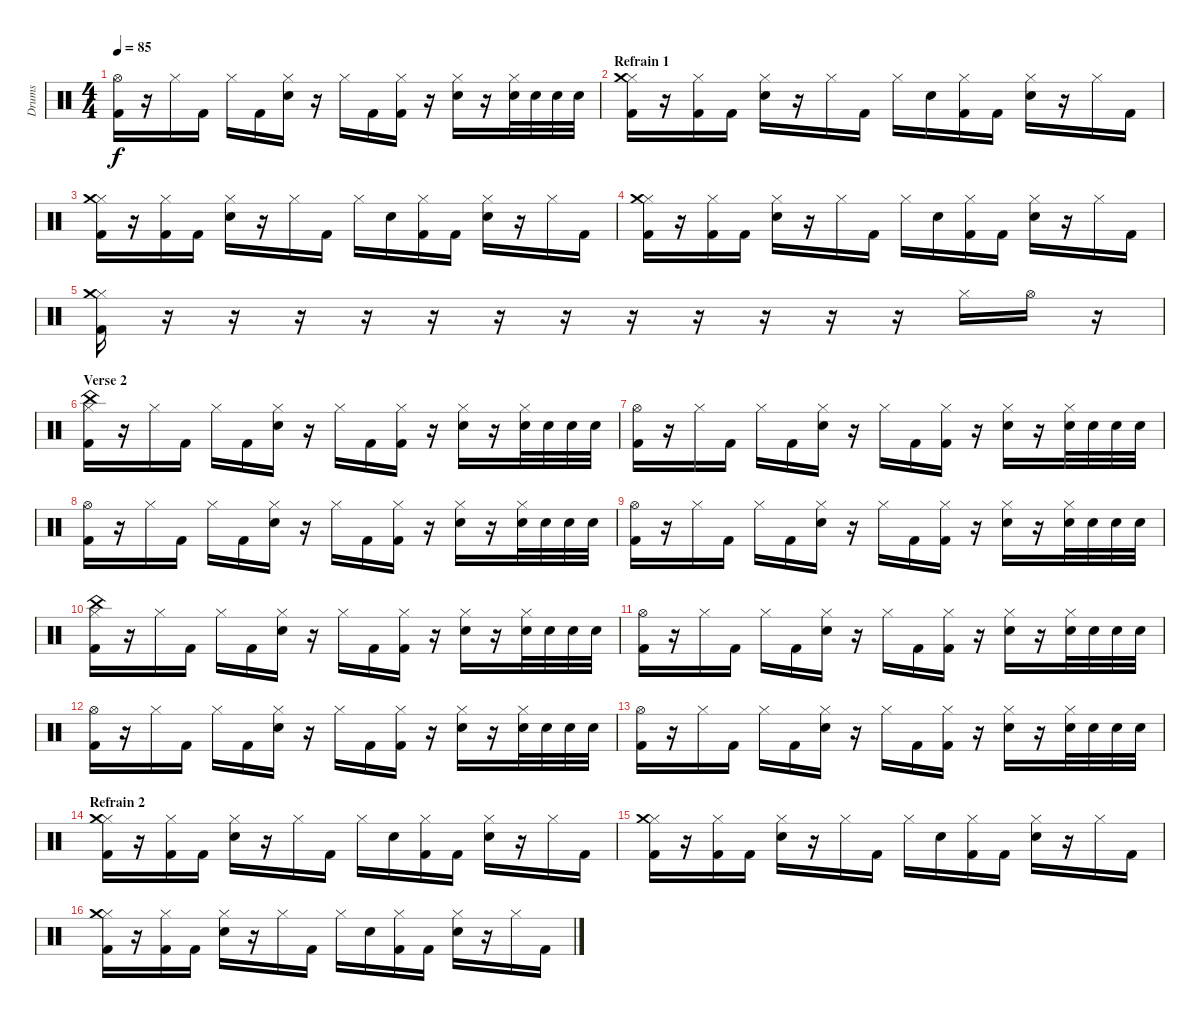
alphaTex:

\track ("Drums" "Drums") {instrument percussion}
\staff {score}
\articulation defaults
\ts (4 4)
\tempo 85
\clef neutral
\ks c
("Hi-Hat (open)" "Kick (hit) 2").16{dy f} r.16 "Hi-Hat (closed)".16 "Kick (hit) 2".16 "Hi-Hat (closed)".16 "Kick (hit) 2".16 ("Hi-Hat (closed)" "Snare (hit) 2").16 r.16 "Hi-Hat (closed)".16 "Kick (hit) 2".16 ("Hi-Hat (closed)" "Kick (hit) 2").16 r.16 ("Hi-Hat (closed)" "Snare (hit) 2").16 r.16 ("Hi-Hat (closed)" "Snare (hit) 2").32 "Snare (hit) 2".32 "Snare (hit) 2".32 "Snare (hit) 2".32 |
\section ("" "Refrain 1")
("Hi-Hat (closed)" "Kick (hit) 2" "Crash medium (hit)").16 r.16 ("Hi-Hat (closed)" "Kick (hit) 2").16 "Kick (hit) 2".16 ("Hi-Hat (closed)" "Snare (hit) 2").16 r.16 "Hi-Hat (closed)".16 "Kick (hit) 2".16 "Hi-Hat (closed)".16 "Snare (hit) 2".16 ("Hi-Hat (closed)" "Kick (hit) 2").16 "Kick (hit) 2".16 ("Hi-Hat (closed)" "Snare (hit) 2").16 r.16 "Hi-Hat (closed)".16 "Kick (hit) 2".16 |
("Hi-Hat (closed)" "Kick (hit) 2" "Crash medium (hit)").16 r.16 ("Hi-Hat (closed)" "Kick (hit) 2").16 "Kick (hit) 2".16 ("Hi-Hat (closed)" "Snare (hit) 2").16 r.16 "Hi-Hat (closed)".16 "Kick (hit) 2".16 "Hi-Hat (closed)".16 "Snare (hit) 2".16 ("Hi-Hat (closed)" "Kick (hit) 2").16 "Kick (hit) 2".16 ("Hi-Hat (closed)" "Snare (hit) 2").16 r.16 "Hi-Hat (closed)".16 "Kick (hit) 2".16 |
("Hi-Hat (closed)" "Kick (hit) 2" "Crash medium (hit)").16 r.16 ("Hi-Hat (closed)" "Kick (hit) 2").16 "Kick (hit) 2".16 ("Hi-Hat (closed)" "Snare (hit) 2").16 r.16 "Hi-Hat (closed)".16 "Kick (hit) 2".16 "Hi-Hat (closed)".16 "Snare (hit) 2".16 ("Hi-Hat (closed)" "Kick (hit) 2").16 "Kick (hit) 2".16 ("Hi-Hat (closed)" "Snare (hit) 2").16 r.16 "Hi-Hat (closed)".16 "Kick (hit) 2".16 |
("Hi-Hat (closed)" "Kick (hit) 2" "Crash medium (hit)").16 r.16 r.16 r.16 r.16 r.16 r.16 r.16 r.16 r.16 r.16 r.16 r.16 "Hi-Hat (closed)".16 "Hi-Hat (open)".16 r.16 |
\section ("" "Verse 2")
("Hi-Hat (closed)" "Kick (hit) 2" "China (hit)").16 r.16 "Hi-Hat (closed)".16 "Kick (hit) 2".16 "Hi-Hat (closed)".16 "Kick (hit) 2".16 ("Hi-Hat (closed)" "Snare (hit) 2").16 r.16 "Hi-Hat (closed)".16 "Kick (hit) 2".16 ("Hi-Hat (closed)" "Kick (hit) 2").16 r.16 ("Hi-Hat (closed)" "Snare (hit) 2").16 r.16 ("Hi-Hat (closed)" "Snare (hit) 2").32 "Snare (hit) 2".32 "Snare (hit) 2".32 "Snare (hit) 2".32 |
("Hi-Hat (open)" "Kick (hit) 2").16 r.16 "Hi-Hat (closed)".16 "Kick (hit) 2".16 "Hi-Hat (closed)".16 "Kick (hit) 2".16 ("Hi-Hat (closed)" "Snare (hit) 2").16 r.16 "Hi-Hat (closed)".16 "Kick (hit) 2".16 ("Hi-Hat (closed)" "Kick (hit) 2").16 r.16 ("Hi-Hat (closed)" "Snare (hit) 2").16 r.16 ("Hi-Hat (closed)" "Snare (hit) 2").32 "Snare (hit) 2".32 "Snare (hit) 2".32 "Snare (hit) 2".32 |
("Hi-Hat (open)" "Kick (hit) 2").16 r.16 "Hi-Hat (closed)".16 "Kick (hit) 2".16 "Hi-Hat (closed)".16 "Kick (hit) 2".16 ("Hi-Hat (closed)" "Snare (hit) 2").16 r.16 "Hi-Hat (closed)".16 "Kick (hit) 2".16 ("Hi-Hat (closed)" "Kick (hit) 2").16 r.16 ("Hi-Hat (closed)" "Snare (hit) 2").16 r.16 ("Hi-Hat (closed)" "Snare (hit) 2").32 "Snare (hit) 2".32 "Snare (hit) 2".32 "Snare (hit) 2".32 |
("Hi-Hat (open)" "Kick (hit) 2").16 r.16 "Hi-Hat (closed)".16 "Kick (hit) 2".16 "Hi-Hat (closed)".16 "Kick (hit) 2".16 ("Hi-Hat (closed)" "Snare (hit) 2").16 r.16 "Hi-Hat (closed)".16 "Kick (hit) 2".16 ("Hi-Hat (closed)" "Kick (hit) 2").16 r.16 ("Hi-Hat (closed)" "Snare (hit) 2").16 r.16 ("Hi-Hat (closed)" "Snare (hit) 2").32 "Snare (hit) 2".32 "Snare (hit) 2".32 "Snare (hit) 2".32 |
("Hi-Hat (closed)" "Kick (hit) 2" "China (hit)").16 r.16 "Hi-Hat (closed)".16 "Kick (hit) 2".16 "Hi-Hat (closed)".16 "Kick (hit) 2".16 ("Hi-Hat (closed)" "Snare (hit) 2").16 r.16 "Hi-Hat (closed)".16 "Kick (hit) 2".16 ("Hi-Hat (closed)" "Kick (hit) 2").16 r.16 ("Hi-Hat (closed)" "Snare (hit) 2").16 r.16 ("Hi-Hat (closed)" "Snare (hit) 2").32 "Snare (hit) 2".32 "Snare (hit) 2".32 "Snare (hit) 2".32 |
("Hi-Hat (open)" "Kick (hit) 2").16 r.16 "Hi-Hat (closed)".16 "Kick (hit) 2".16 "Hi-Hat (closed)".16 "Kick (hit) 2".16 ("Hi-Hat (closed)" "Snare (hit) 2").16 r.16 "Hi-Hat (closed)".16 "Kick (hit) 2".16 ("Hi-Hat (closed)" "Kick (hit) 2").16 r.16 ("Hi-Hat (closed)" "Snare (hit) 2").16 r.16 ("Hi-Hat (closed)" "Snare (hit) 2").32 "Snare (hit) 2".32 "Snare (hit) 2".32 "Snare (hit) 2".32 |
("Hi-Hat (open)" "Kick (hit) 2").16 r.16 "Hi-Hat (closed)".16 "Kick (hit) 2".16 "Hi-Hat (closed)".16 "Kick (hit) 2".16 ("Hi-Hat (closed)" "Snare (hit) 2").16 r.16 "Hi-Hat (closed)".16 "Kick (hit) 2".16 ("Hi-Hat (closed)" "Kick (hit) 2").16 r.16 ("Hi-Hat (closed)" "Snare (hit) 2").16 r.16 ("Hi-Hat (closed)" "Snare (hit) 2").32 "Snare (hit) 2".32 "Snare (hit) 2".32 "Snare (hit) 2".32 |
("Hi-Hat (open)" "Kick (hit) 2").16 r.16 "Hi-Hat (closed)".16 "Kick (hit) 2".16 "Hi-Hat (closed)".16 "Kick (hit) 2".16 ("Hi-Hat (closed)" "Snare (hit) 2").16 r.16 "Hi-Hat (closed)".16 "Kick (hit) 2".16 ("Hi-Hat (closed)" "Kick (hit) 2").16 r.16 ("Hi-Hat (closed)" "Snare (hit) 2").16 r.16 ("Hi-Hat (closed)" "Snare (hit) 2").32 "Snare (hit) 2".32 "Snare (hit) 2".32 "Snare (hit) 2".32 |
\section ("" "Refrain 2")
("Hi-Hat (closed)" "Kick (hit) 2" "Crash medium (hit)").16 r.16 ("Hi-Hat (closed)" "Kick (hit) 2").16 "Kick (hit) 2".16 ("Hi-Hat (closed)" "Snare (hit) 2").16 r.16 "Hi-Hat (closed)".16 "Kick (hit) 2".16 "Hi-Hat (closed)".16 "Snare (hit) 2".16 ("Hi-Hat (closed)" "Kick (hit) 2").16 "Kick (hit) 2".16 ("Hi-Hat (closed)" "Snare (hit) 2").16 r.16 "Hi-Hat (closed)".16 "Kick (hit) 2".16 |
("Hi-Hat (closed)" "Kick (hit) 2" "Crash medium (hit)").16 r.16 ("Hi-Hat (closed)" "Kick (hit) 2").16 "Kick (hit) 2".16 ("Hi-Hat (closed)" "Snare (hit) 2").16 r.16 "Hi-Hat (closed)".16 "Kick (hit) 2".16 "Hi-Hat (closed)".16 "Snare (hit) 2".16 ("Hi-Hat (closed)" "Kick (hit) 2").16 "Kick (hit) 2".16 ("Hi-Hat (closed)" "Snare (hit) 2").16 r.16 "Hi-Hat (closed)".16 "Kick (hit) 2".16 |
("Hi-Hat (closed)" "Kick (hit) 2" "Crash medium (hit)").16 r.16 ("Hi-Hat (closed)" "Kick (hit) 2").16 "Kick (hit) 2".16 ("Hi-Hat (closed)" "Snare (hit) 2").16 r.16 "Hi-Hat (closed)".16 "Kick (hit) 2".16 "Hi-Hat (closed)".16 "Snare (hit) 2".16 ("Hi-Hat (closed)" "Kick (hit) 2").16 "Kick (hit) 2".16 ("Hi-Hat (closed)" "Snare (hit) 2").16 r.16 "Hi-Hat (closed)".16 "Kick (hit) 2".16
